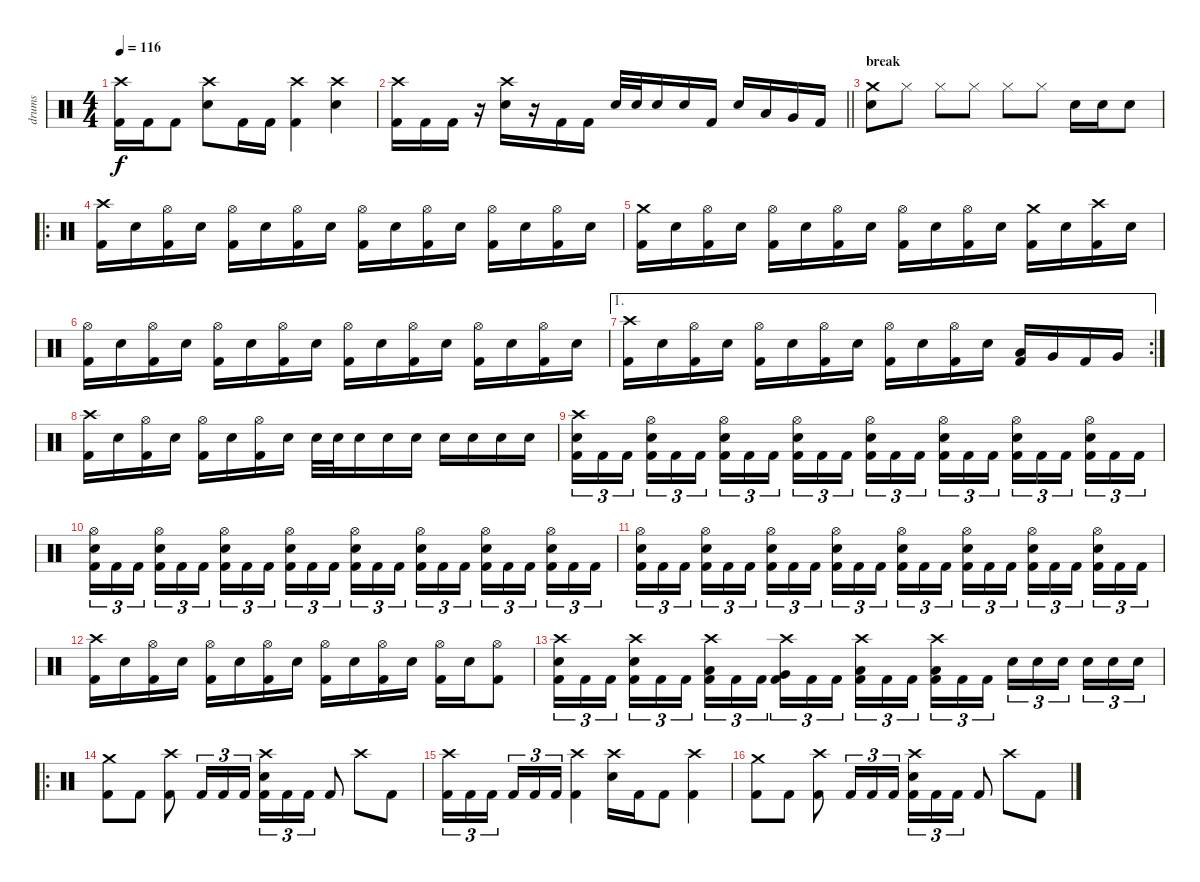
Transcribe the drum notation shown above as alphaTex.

\track ("drums" "drums") {instrument percussion}
\staff {score}
\articulation defaults
\ts (4 4)
\tempo 116
\clef neutral
\ks c
("Crash high (hit)" "Kick (hit) 2").16{dy f} "Kick (hit) 2".16 "Kick (hit) 2".8 ("Snare (hit) 2" "Crash high (hit)").8 "Kick (hit) 2".16 "Kick (hit) 2".16 ("Crash high (hit)" "Kick (hit) 2").4 ("Crash high (hit)" "Snare (hit) 2").4 |
\barLineRight lightlight
("Crash high (hit)" "Kick (hit) 2").16 "Kick (hit) 2".16 "Kick (hit) 2".16 r.16 ("Snare (hit) 2" "Crash high (hit)").16 r.16 "Kick (hit) 2".16 "Kick (hit) 2".16 "Snare (hit) 2".32 "Snare (hit) 2".32 "Snare (hit) 2".16 "Snare (hit) 2".16 "Kick (hit) 2".16 "Snare (hit) 2".16 "Low Tom (hit)".16 "Very Low Tom (hit)".16 "Kick (hit) 2".16 |
\section ("" "break")
("Crash medium (hit)" "Snare (hit) 2").8 "Hi-Hat (closed)".8 "Hi-Hat (closed)".8 "Hi-Hat (closed)".8 "Hi-Hat (closed)".8 "Hi-Hat (closed)".8 "Snare (hit) 2".16 "Snare (hit) 2".16 "Snare (hit) 2".8 |
\ro
("Crash high (hit)" "Kick (hit) 2").16 "Snare (hit) 2".16 ("Hi-Hat (open)" "Kick (hit) 2").16 "Snare (hit) 2".16 ("Hi-Hat (open)" "Kick (hit) 2").16 "Snare (hit) 2".16 ("Hi-Hat (open)" "Kick (hit) 2").16 "Snare (hit) 2".16 ("Hi-Hat (open)" "Kick (hit) 2").16 "Snare (hit) 2".16 ("Hi-Hat (open)" "Kick (hit) 2").16 "Snare (hit) 2".16 ("Hi-Hat (open)" "Kick (hit) 2").16 "Snare (hit) 2".16 ("Hi-Hat (open)" "Kick (hit) 2").16 "Snare (hit) 2".16 |
("Crash medium (hit)" "Kick (hit) 2").16 "Snare (hit) 2".16 ("Hi-Hat (open)" "Kick (hit) 2").16 "Snare (hit) 2".16 ("Hi-Hat (open)" "Kick (hit) 2").16 "Snare (hit) 2".16 ("Hi-Hat (open)" "Kick (hit) 2").16 "Snare (hit) 2".16 ("Hi-Hat (open)" "Kick (hit) 2").16 "Snare (hit) 2".16 ("Hi-Hat (open)" "Kick (hit) 2").16 "Snare (hit) 2".16 ("Crash medium (hit)" "Kick (hit) 2").16 "Snare (hit) 2".16 ("Crash high (hit)" "Kick (hit) 2").16 "Snare (hit) 2".16 |
("Hi-Hat (open)" "Kick (hit) 2").16 "Snare (hit) 2".16 ("Hi-Hat (open)" "Kick (hit) 2").16 "Snare (hit) 2".16 ("Hi-Hat (open)" "Kick (hit) 2").16 "Snare (hit) 2".16 ("Hi-Hat (open)" "Kick (hit) 2").16 "Snare (hit) 2".16 ("Hi-Hat (open)" "Kick (hit) 2").16 "Snare (hit) 2".16 ("Hi-Hat (open)" "Kick (hit) 2").16 "Snare (hit) 2".16 ("Hi-Hat (open)" "Kick (hit) 2").16 "Snare (hit) 2".16 ("Hi-Hat (open)" "Kick (hit) 2").16 "Snare (hit) 2".16 |
\ae 1
\rc 2
("Crash high (hit)" "Kick (hit) 2").16 "Snare (hit) 2".16 ("Hi-Hat (open)" "Kick (hit) 2").16 "Snare (hit) 2".16 ("Hi-Hat (open)" "Kick (hit) 2").16 "Snare (hit) 2".16 ("Hi-Hat (open)" "Kick (hit) 2").16 "Snare (hit) 2".16 ("Hi-Hat (open)" "Kick (hit) 2").16 "Snare (hit) 2".16 ("Hi-Hat (open)" "Kick (hit) 2").16 "Snare (hit) 2".16 ("Low Tom (hit)" "Kick (hit) 2").16 "Very Low Tom (hit)".16 "Kick (hit) 2".16 "Very Low Tom (hit)".16 |
("Crash high (hit)" "Kick (hit) 2").16 "Snare (hit) 2".16 ("Hi-Hat (open)" "Kick (hit) 2").16 "Snare (hit) 2".16 ("Hi-Hat (open)" "Kick (hit) 2").16 "Snare (hit) 2".16 ("Hi-Hat (open)" "Kick (hit) 2").16 "Snare (hit) 2".16 "Snare (hit) 2".32 "Snare (hit) 2".32 "Snare (hit) 2".16 "Snare (hit) 2".16 "Snare (hit) 2".16 "Snare (hit) 2".16 "Snare (hit) 2".16 "Snare (hit) 2".16 "Snare (hit) 2".16 |
("Crash high (hit)" "Snare (hit) 2" "Kick (hit) 2").16{tu (3 2)} "Kick (hit) 2".16{tu (3 2)} "Kick (hit) 2".16{tu (3 2) beam splitsecondary} ("Hi-Hat (open)" "Snare (hit) 2" "Kick (hit) 2").16{tu (3 2)} "Kick (hit) 2".16{tu (3 2)} "Kick (hit) 2".16{tu (3 2)} ("Hi-Hat (open)" "Snare (hit) 2" "Kick (hit) 2").16{tu (3 2)} "Kick (hit) 2".16{tu (3 2)} "Kick (hit) 2".16{tu (3 2) beam splitsecondary} ("Hi-Hat (open)" "Snare (hit) 2" "Kick (hit) 2").16{tu (3 2)} "Kick (hit) 2".16{tu (3 2)} "Kick (hit) 2".16{tu (3 2)} ("Hi-Hat (open)" "Snare (hit) 2" "Kick (hit) 2").16{tu (3 2)} "Kick (hit) 2".16{tu (3 2)} "Kick (hit) 2".16{tu (3 2) beam splitsecondary} ("Hi-Hat (open)" "Snare (hit) 2" "Kick (hit) 2").16{tu (3 2)} "Kick (hit) 2".16{tu (3 2)} "Kick (hit) 2".16{tu (3 2)} ("Hi-Hat (open)" "Snare (hit) 2" "Kick (hit) 2").16{tu (3 2)} "Kick (hit) 2".16{tu (3 2)} "Kick (hit) 2".16{tu (3 2) beam splitsecondary} ("Hi-Hat (open)" "Snare (hit) 2" "Kick (hit) 2").16{tu (3 2)} "Kick (hit) 2".16{tu (3 2)} "Kick (hit) 2".16{tu (3 2)} |
("Hi-Hat (open)" "Snare (hit) 2" "Kick (hit) 2").16{tu (3 2)} "Kick (hit) 2".16{tu (3 2)} "Kick (hit) 2".16{tu (3 2) beam splitsecondary} ("Hi-Hat (open)" "Snare (hit) 2" "Kick (hit) 2").16{tu (3 2)} "Kick (hit) 2".16{tu (3 2)} "Kick (hit) 2".16{tu (3 2)} ("Hi-Hat (open)" "Snare (hit) 2" "Kick (hit) 2").16{tu (3 2)} "Kick (hit) 2".16{tu (3 2)} "Kick (hit) 2".16{tu (3 2) beam splitsecondary} ("Hi-Hat (open)" "Snare (hit) 2" "Kick (hit) 2").16{tu (3 2)} "Kick (hit) 2".16{tu (3 2)} "Kick (hit) 2".16{tu (3 2)} ("Hi-Hat (open)" "Snare (hit) 2" "Kick (hit) 2").16{tu (3 2)} "Kick (hit) 2".16{tu (3 2)} "Kick (hit) 2".16{tu (3 2) beam splitsecondary} ("Hi-Hat (open)" "Snare (hit) 2" "Kick (hit) 2").16{tu (3 2)} "Kick (hit) 2".16{tu (3 2)} "Kick (hit) 2".16{tu (3 2)} ("Hi-Hat (open)" "Snare (hit) 2" "Kick (hit) 2").16{tu (3 2)} "Kick (hit) 2".16{tu (3 2)} "Kick (hit) 2".16{tu (3 2) beam splitsecondary} ("Hi-Hat (open)" "Snare (hit) 2" "Kick (hit) 2").16{tu (3 2)} "Kick (hit) 2".16{tu (3 2)} "Kick (hit) 2".16{tu (3 2)} |
("Hi-Hat (open)" "Snare (hit) 2" "Kick (hit) 2").16{tu (3 2)} "Kick (hit) 2".16{tu (3 2)} "Kick (hit) 2".16{tu (3 2) beam splitsecondary} ("Hi-Hat (open)" "Snare (hit) 2" "Kick (hit) 2").16{tu (3 2)} "Kick (hit) 2".16{tu (3 2)} "Kick (hit) 2".16{tu (3 2)} ("Hi-Hat (open)" "Snare (hit) 2" "Kick (hit) 2").16{tu (3 2)} "Kick (hit) 2".16{tu (3 2)} "Kick (hit) 2".16{tu (3 2) beam splitsecondary} ("Hi-Hat (open)" "Snare (hit) 2" "Kick (hit) 2").16{tu (3 2)} "Kick (hit) 2".16{tu (3 2)} "Kick (hit) 2".16{tu (3 2)} ("Hi-Hat (open)" "Snare (hit) 2" "Kick (hit) 2").16{tu (3 2)} "Kick (hit) 2".16{tu (3 2)} "Kick (hit) 2".16{tu (3 2) beam splitsecondary} ("Hi-Hat (open)" "Snare (hit) 2" "Kick (hit) 2").16{tu (3 2)} "Kick (hit) 2".16{tu (3 2)} "Kick (hit) 2".16{tu (3 2)} ("Hi-Hat (open)" "Snare (hit) 2" "Kick (hit) 2").16{tu (3 2)} "Kick (hit) 2".16{tu (3 2)} "Kick (hit) 2".16{tu (3 2) beam splitsecondary} ("Hi-Hat (open)" "Snare (hit) 2" "Kick (hit) 2").16{tu (3 2)} "Kick (hit) 2".16{tu (3 2)} "Kick (hit) 2".16{tu (3 2)} |
("Crash high (hit)" "Kick (hit) 2").16 "Snare (hit) 2".16 ("Hi-Hat (open)" "Kick (hit) 2").16 "Snare (hit) 2".16 ("Hi-Hat (open)" "Kick (hit) 2").16 "Snare (hit) 2".16 ("Hi-Hat (open)" "Kick (hit) 2").16 "Snare (hit) 2".16 ("Hi-Hat (open)" "Kick (hit) 2").16 "Snare (hit) 2".16 ("Hi-Hat (open)" "Kick (hit) 2").16 "Snare (hit) 2".16 ("Hi-Hat (open)" "Kick (hit) 2").16 "Snare (hit) 2".16 ("Hi-Hat (open)" "Kick (hit) 2").8 |
("Crash high (hit)" "Snare (hit) 2" "Kick (hit) 2").16{tu (3 2)} "Kick (hit) 2".16{tu (3 2)} "Kick (hit) 2".16{tu (3 2) beam splitsecondary} ("Crash high (hit)" "Snare (hit) 2" "Kick (hit) 2").16{tu (3 2)} "Kick (hit) 2".16{tu (3 2)} "Kick (hit) 2".16{tu (3 2)} ("Crash high (hit)" "Low Tom (hit)" "Kick (hit) 2").16{tu (3 2)} "Kick (hit) 2".16{tu (3 2)} "Kick (hit) 2".16{tu (3 2) beam splitsecondary} ("Crash high (hit)" "Very Low Tom (hit)" "Kick (hit) 2").16{tu (3 2)} "Kick (hit) 2".16{tu (3 2)} "Kick (hit) 2".16{tu (3 2)} ("Crash high (hit)" "Low Floor Tom (hit)" "Kick (hit) 2").16{tu (3 2)} "Kick (hit) 2".16{tu (3 2)} "Kick (hit) 2".16{tu (3 2) beam splitsecondary} ("Crash high (hit)" "Low Floor Tom (hit)" "Kick (hit) 2").16{tu (3 2)} "Kick (hit) 2".16{tu (3 2)} "Kick (hit) 2".16{tu (3 2)} "Snare (hit) 2".16{tu (3 2)} "Snare (hit) 2".16{tu (3 2)} "Snare (hit) 2".16{tu (3 2) beam splitsecondary} "Snare (hit) 2".16{tu (3 2)} "Snare (hit) 2".16{tu (3 2)} "Snare (hit) 2".16{tu (3 2)} |
\ro
("Crash medium (hit)" "Kick (hit) 2").8 "Kick (hit) 2".8 ("Crash high (hit)" "Kick (hit) 2").8 "Kick (hit) 2".16{tu (3 2)} "Kick (hit) 2".16{tu (3 2)} "Kick (hit) 2".16{tu (3 2)} ("Crash high (hit)" "Snare (hit) 2" "Kick (hit) 2").16{tu (3 2)} "Kick (hit) 2".16{tu (3 2)} "Kick (hit) 2".16{tu (3 2)} "Kick (hit) 2".8 "Crash high (hit)".8 "Kick (hit) 2".8 |
("Crash high (hit)" "Kick (hit) 2").16{tu (3 2)} "Kick (hit) 2".16{tu (3 2)} "Kick (hit) 2".16{tu (3 2) beam splitsecondary} "Kick (hit) 2".16{tu (3 2)} "Kick (hit) 2".16{tu (3 2)} "Kick (hit) 2".16{tu (3 2)} ("Crash high (hit)" "Kick (hit) 2").4 ("Crash high (hit)" "Snare (hit) 2").16 "Kick (hit) 2".16 "Kick (hit) 2".8 ("Crash high (hit)" "Kick (hit) 2").4 |
("Crash medium (hit)" "Kick (hit) 2").8 "Kick (hit) 2".8 ("Crash high (hit)" "Kick (hit) 2").8 "Kick (hit) 2".16{tu (3 2)} "Kick (hit) 2".16{tu (3 2)} "Kick (hit) 2".16{tu (3 2)} ("Crash high (hit)" "Snare (hit) 2" "Kick (hit) 2").16{tu (3 2)} "Kick (hit) 2".16{tu (3 2)} "Kick (hit) 2".16{tu (3 2)} "Kick (hit) 2".8 "Crash high (hit)".8 "Kick (hit) 2".8
